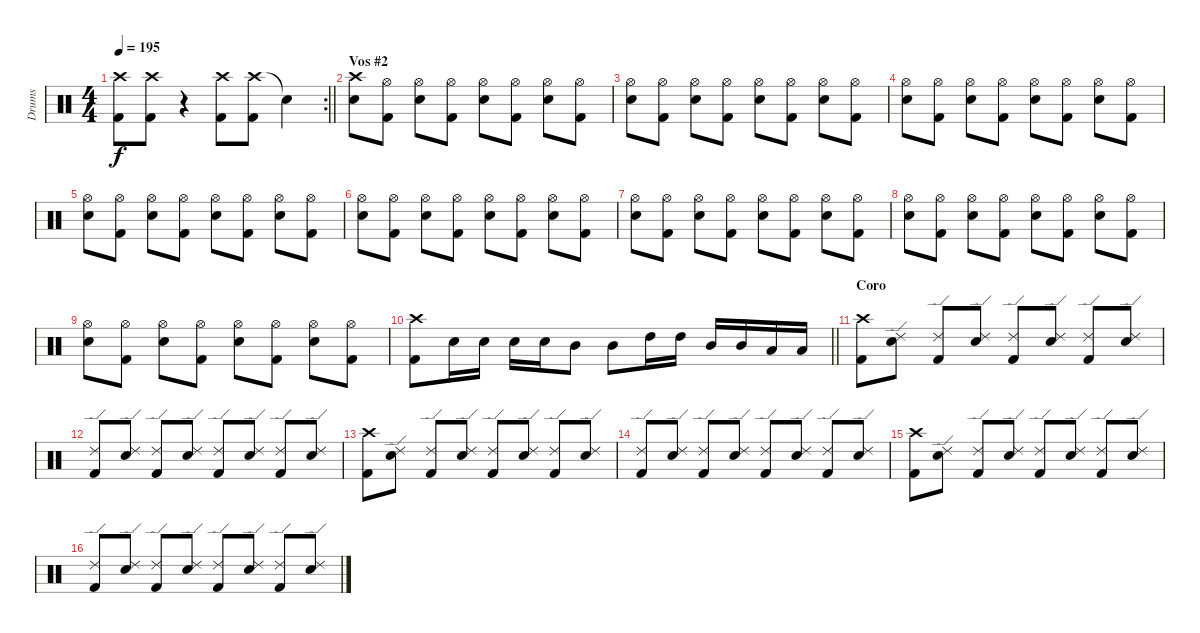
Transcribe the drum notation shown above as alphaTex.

\track ("Drums" "Drums") {instrument percussion}
\staff {score}
\articulation defaults
\rc 2
\ts (4 4)
\tempo 195
\clef neutral
\barLineRight lightlight
\ks c
("Crash high (hit)" "Kick (hit) 2").8{dy f} ("Crash high (hit)" "Kick (hit) 2").8 r.4 ("Crash high (hit)" "Kick (hit) 2").8 ("Crash high (hit)" "Kick (hit) 2").8 "Snare (hit)"{t}.4 |
\section ("" "Vos #2")
("Crash high (hit)" "Snare (hit) 2").8 ("Hi-Hat (open)" "Kick (hit) 2").8 ("Hi-Hat (open)" "Snare (hit) 2").8 ("Hi-Hat (open)" "Kick (hit) 2").8 ("Hi-Hat (open)" "Snare (hit) 2").8 ("Hi-Hat (open)" "Kick (hit) 2").8 ("Hi-Hat (open)" "Snare (hit) 2").8 ("Hi-Hat (open)" "Kick (hit) 2").8 |
("Hi-Hat (open)" "Snare (hit) 2").8 ("Hi-Hat (open)" "Kick (hit) 2").8 ("Hi-Hat (open)" "Snare (hit) 2").8 ("Hi-Hat (open)" "Kick (hit) 2").8 ("Hi-Hat (open)" "Snare (hit) 2").8 ("Hi-Hat (open)" "Kick (hit) 2").8 ("Hi-Hat (open)" "Snare (hit) 2").8 ("Hi-Hat (open)" "Kick (hit) 2").8 |
("Hi-Hat (open)" "Snare (hit) 2").8 ("Hi-Hat (open)" "Kick (hit) 2").8 ("Hi-Hat (open)" "Snare (hit) 2").8 ("Hi-Hat (open)" "Kick (hit) 2").8 ("Hi-Hat (open)" "Snare (hit) 2").8 ("Hi-Hat (open)" "Kick (hit) 2").8 ("Hi-Hat (open)" "Snare (hit) 2").8 ("Hi-Hat (open)" "Kick (hit) 2").8 |
("Hi-Hat (open)" "Snare (hit) 2").8 ("Hi-Hat (open)" "Kick (hit) 2").8 ("Hi-Hat (open)" "Snare (hit) 2").8 ("Hi-Hat (open)" "Kick (hit) 2").8 ("Hi-Hat (open)" "Snare (hit) 2").8 ("Hi-Hat (open)" "Kick (hit) 2").8 ("Hi-Hat (open)" "Snare (hit) 2").8 ("Hi-Hat (open)" "Kick (hit) 2").8 |
("Hi-Hat (open)" "Snare (hit) 2").8 ("Hi-Hat (open)" "Kick (hit) 2").8 ("Hi-Hat (open)" "Snare (hit) 2").8 ("Hi-Hat (open)" "Kick (hit) 2").8 ("Hi-Hat (open)" "Snare (hit) 2").8 ("Hi-Hat (open)" "Kick (hit) 2").8 ("Hi-Hat (open)" "Snare (hit) 2").8 ("Hi-Hat (open)" "Kick (hit) 2").8 |
("Hi-Hat (open)" "Snare (hit) 2").8 ("Hi-Hat (open)" "Kick (hit) 2").8 ("Hi-Hat (open)" "Snare (hit) 2").8 ("Hi-Hat (open)" "Kick (hit) 2").8 ("Hi-Hat (open)" "Snare (hit) 2").8 ("Hi-Hat (open)" "Kick (hit) 2").8 ("Hi-Hat (open)" "Snare (hit) 2").8 ("Hi-Hat (open)" "Kick (hit) 2").8 |
("Hi-Hat (open)" "Snare (hit) 2").8 ("Hi-Hat (open)" "Kick (hit) 2").8 ("Hi-Hat (open)" "Snare (hit) 2").8 ("Hi-Hat (open)" "Kick (hit) 2").8 ("Hi-Hat (open)" "Snare (hit) 2").8 ("Hi-Hat (open)" "Kick (hit) 2").8 ("Hi-Hat (open)" "Snare (hit) 2").8 ("Hi-Hat (open)" "Kick (hit) 2").8 |
("Hi-Hat (open)" "Snare (hit) 2").8 ("Hi-Hat (open)" "Kick (hit) 2").8 ("Hi-Hat (open)" "Snare (hit) 2").8 ("Hi-Hat (open)" "Kick (hit) 2").8 ("Hi-Hat (open)" "Snare (hit) 2").8 ("Hi-Hat (open)" "Kick (hit) 2").8 ("Hi-Hat (open)" "Snare (hit) 2").8 ("Hi-Hat (open)" "Kick (hit) 2").8 |
\barLineRight lightlight
("Crash high (hit)" "Kick (hit) 2").8 "Snare (hit) 2".16 "Snare (hit) 2".16 "Snare (hit) 2".16 "Snare (hit) 2".16 "Mid Tom (hit)".8 "Mid Tom (hit)".8 "High Tom (hit)".16 "High Tom (hit)".16 "Mid Tom (hit)".16 "Mid Tom (hit)".16 "Low Tom (hit)".16 "Low Tom (hit)".16 |
\section ("" "Coro")
("Crash high (hit)" "Kick (hit) 2").8 ("Ride (edge) 2" "Snare (hit) 2").8 ("Ride (edge) 2" "Kick (hit) 2").8 ("Ride (edge) 2" "Snare (hit) 2").8 ("Ride (edge) 2" "Kick (hit) 2").8 ("Ride (edge) 2" "Snare (hit) 2").8 ("Ride (edge) 2" "Kick (hit) 2").8 ("Ride (edge) 2" "Snare (hit) 2").8 |
("Ride (edge) 2" "Kick (hit) 2").8 ("Ride (edge) 2" "Snare (hit) 2").8 ("Ride (edge) 2" "Kick (hit) 2").8 ("Ride (edge) 2" "Snare (hit) 2").8 ("Ride (edge) 2" "Kick (hit) 2").8 ("Ride (edge) 2" "Snare (hit) 2").8 ("Ride (edge) 2" "Kick (hit) 2").8 ("Ride (edge) 2" "Snare (hit) 2").8 |
("Crash high (hit)" "Kick (hit) 2").8 ("Ride (edge) 2" "Snare (hit) 2").8 ("Ride (edge) 2" "Kick (hit) 2").8 ("Ride (edge) 2" "Snare (hit) 2").8 ("Ride (edge) 2" "Kick (hit) 2").8 ("Ride (edge) 2" "Snare (hit) 2").8 ("Ride (edge) 2" "Kick (hit) 2").8 ("Ride (edge) 2" "Snare (hit) 2").8 |
("Ride (edge) 2" "Kick (hit) 2").8 ("Ride (edge) 2" "Snare (hit) 2").8 ("Ride (edge) 2" "Kick (hit) 2").8 ("Ride (edge) 2" "Snare (hit) 2").8 ("Ride (edge) 2" "Kick (hit) 2").8 ("Ride (edge) 2" "Snare (hit) 2").8 ("Ride (edge) 2" "Kick (hit) 2").8 ("Ride (edge) 2" "Snare (hit) 2").8 |
("Crash high (hit)" "Kick (hit) 2").8 ("Ride (edge) 2" "Snare (hit) 2").8 ("Ride (edge) 2" "Kick (hit) 2").8 ("Ride (edge) 2" "Snare (hit) 2").8 ("Ride (edge) 2" "Kick (hit) 2").8 ("Ride (edge) 2" "Snare (hit) 2").8 ("Ride (edge) 2" "Kick (hit) 2").8 ("Ride (edge) 2" "Snare (hit) 2").8 |
("Ride (edge) 2" "Kick (hit) 2").8 ("Ride (edge) 2" "Snare (hit) 2").8 ("Ride (edge) 2" "Kick (hit) 2").8 ("Ride (edge) 2" "Snare (hit) 2").8 ("Ride (edge) 2" "Kick (hit) 2").8 ("Ride (edge) 2" "Snare (hit) 2").8 ("Ride (edge) 2" "Kick (hit) 2").8 ("Ride (edge) 2" "Snare (hit) 2").8
